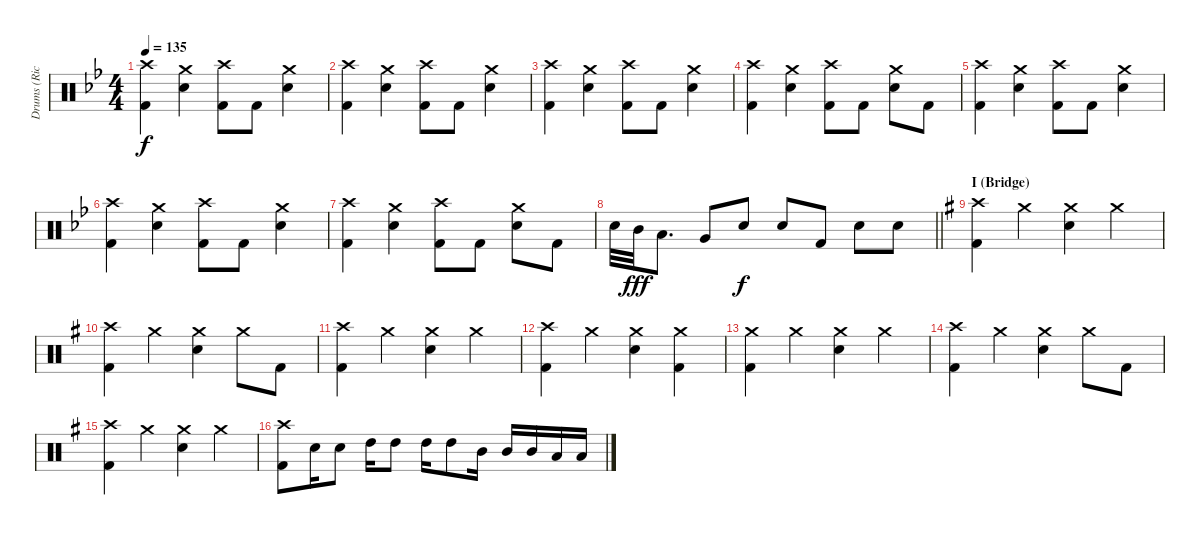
\track ("Drums (Richard Evensand)" "Drums (Ric") {instrument percussion}
\staff {score}
\articulation defaults
\ts (4 4)
\tempo 135
\clef neutral
\ks gminor
("Crash high (hit)" "Kick (hit) 2").4{dy f} ("Crash medium (hit)" "Electric Snare (hit)").4 ("Crash high (hit)" "Kick (hit) 2").8 "Kick (hit) 2".8 ("Crash medium (hit)" "Electric Snare (hit)").4 |
("Crash high (hit)" "Kick (hit) 2").4 ("Crash medium (hit)" "Electric Snare (hit)").4 ("Crash high (hit)" "Kick (hit) 2").8 "Kick (hit) 2".8 ("Crash medium (hit)" "Electric Snare (hit)").4 |
("Crash high (hit)" "Kick (hit) 2").4 ("Crash medium (hit)" "Electric Snare (hit)").4 ("Crash high (hit)" "Kick (hit) 2").8 "Kick (hit) 2".8 ("Crash medium (hit)" "Electric Snare (hit)").4 |
("Crash high (hit)" "Kick (hit) 2").4 ("Crash medium (hit)" "Electric Snare (hit)").4 ("Crash high (hit)" "Kick (hit) 2").8 "Kick (hit) 2".8 ("Crash medium (hit)" "Electric Snare (hit)").8 "Kick (hit) 2".8 |
("Crash high (hit)" "Kick (hit) 2").4 ("Crash medium (hit)" "Electric Snare (hit)").4 ("Crash high (hit)" "Kick (hit) 2").8 "Kick (hit) 2".8 ("Crash medium (hit)" "Electric Snare (hit)").4 |
("Crash high (hit)" "Kick (hit) 2").4 ("Crash medium (hit)" "Electric Snare (hit)").4 ("Crash high (hit)" "Kick (hit) 2").8 "Kick (hit) 2".8 ("Crash medium (hit)" "Electric Snare (hit)").4 |
("Crash high (hit)" "Kick (hit) 2").4 ("Crash medium (hit)" "Electric Snare (hit)").4 ("Crash high (hit)" "Kick (hit) 2").8 "Kick (hit) 2".8 ("Crash medium (hit)" "Electric Snare (hit)").8 "Kick (hit) 2".8 |
\barLineRight lightlight "Electric Snare (hit)".32 "Mid Tom (hit)".32{dy fff} "Low Tom (hit)".8{d} "Very Low Tom (hit)".8 "Electric Snare (hit)".8{dy f} "Electric Snare (hit)".8 "Kick (hit) 2".8 "Electric Snare (hit)".8 "Electric Snare (hit)".8
|
\section ("" "I (Bridge)")
\ks eminor
("Crash high (hit)" "Kick (hit) 2").4 "Crash medium (hit)".4 ("Crash medium (hit)" "Electric Snare (hit)").4 "Crash medium (hit)".4 |
("Crash high (hit)" "Kick (hit) 2").4 "Crash medium (hit)".4 ("Crash medium (hit)" "Electric Snare (hit)").4 "Crash medium (hit)".8 "Kick (hit) 2".8 |
("Crash high (hit)" "Kick (hit) 2").4 "Crash medium (hit)".4 ("Crash medium (hit)" "Electric Snare (hit)").4 "Crash medium (hit)".4 |
("Crash high (hit)" "Kick (hit) 2").4 "Crash medium (hit)".4 ("Crash medium (hit)" "Electric Snare (hit)").4 ("Crash medium (hit)" "Kick (hit) 2").4 |
("Crash medium (hit)" "Kick (hit) 2").4 "Crash medium (hit)".4 ("Crash medium (hit)" "Electric Snare (hit)").4 "Crash medium (hit)".4 |
("Crash high (hit)" "Kick (hit) 2").4 "Crash medium (hit)".4 ("Crash medium (hit)" "Electric Snare (hit)").4 "Crash medium (hit)".8 "Kick (hit) 2".8 |
("Crash high (hit)" "Kick (hit) 2").4 "Crash medium (hit)".4 ("Crash medium (hit)" "Electric Snare (hit)").4 "Crash medium (hit)".4 |
("Crash high (hit)" "Kick (hit) 2").8 "Electric Snare (hit)".16 "Electric Snare (hit)".8 "High Tom (hit)".16 "High Tom (hit)".8 "High Tom (hit)".16 "High Tom (hit)".8 "Mid Tom (hit)".16 "Mid Tom (hit)".16 "Mid Tom (hit)".16 "Low Tom (hit)".16 "Low Tom (hit)".16
